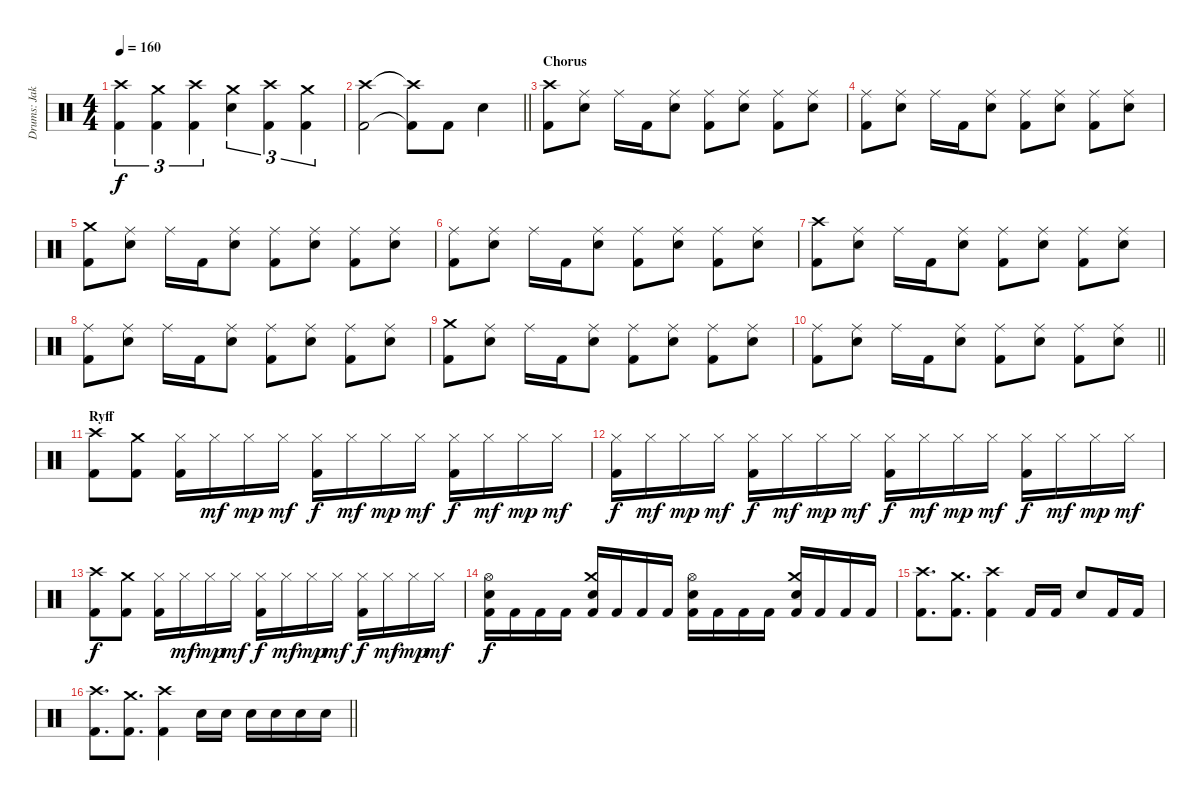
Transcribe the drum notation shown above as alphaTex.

\track ("Drums: Jake" "Drums: Jak") {instrument percussion}
\staff {score}
\articulation defaults
\ts (4 4)
\tempo 160
\clef neutral
\ks c
("Crash high (hit)" "Kick (hit) 2").4{tu (3 2) dy f} ("Crash medium (hit)" "Kick (hit) 2").4{tu (3 2)} ("Crash high (hit)" "Kick (hit) 2").4{tu (3 2)} ("Crash medium (hit)" "Snare (hit) 2").4{tu (3 2)} ("Crash high (hit)" "Kick (hit) 2").4{tu (3 2)} ("Crash medium (hit)" "Kick (hit) 2").4{tu (3 2)} |
\barLineRight lightlight
("Crash high (hit)" "Kick (hit) 2").2 ("Crash high (hit)"{t} "Kick (hit) 2"{t}).8 "Kick (hit) 2".8 "Snare (hit) 2".4 |
\section ("" "Chorus")
("Crash high (hit)" "Kick (hit) 2").8 ("Ride (middle)" "Snare (hit) 2").8 "Ride (middle)".16 "Kick (hit) 2".16 ("Ride (middle)" "Snare (hit) 2").8 ("Ride (middle)" "Kick (hit) 2").8 ("Ride (middle)" "Snare (hit) 2").8 ("Ride (middle)" "Kick (hit) 2").8 ("Ride (middle)" "Snare (hit) 2").8 |
("Ride (middle)" "Kick (hit) 2").8 ("Ride (middle)" "Snare (hit) 2").8 "Ride (middle)".16 "Kick (hit) 2".16 ("Ride (middle)" "Snare (hit) 2").8 ("Ride (middle)" "Kick (hit) 2").8 ("Ride (middle)" "Snare (hit) 2").8 ("Ride (middle)" "Kick (hit) 2").8 ("Ride (middle)" "Snare (hit) 2").8 |
("Crash medium (hit)" "Kick (hit) 2").8 ("Ride (middle)" "Snare (hit) 2").8 "Ride (middle)".16 "Kick (hit) 2".16 ("Ride (middle)" "Snare (hit) 2").8 ("Ride (middle)" "Kick (hit) 2").8 ("Ride (middle)" "Snare (hit) 2").8 ("Ride (middle)" "Kick (hit) 2").8 ("Ride (middle)" "Snare (hit) 2").8 |
("Ride (middle)" "Kick (hit) 2").8 ("Ride (middle)" "Snare (hit) 2").8 "Ride (middle)".16 "Kick (hit) 2".16 ("Ride (middle)" "Snare (hit) 2").8 ("Ride (middle)" "Kick (hit) 2").8 ("Ride (middle)" "Snare (hit) 2").8 ("Ride (middle)" "Kick (hit) 2").8 ("Ride (middle)" "Snare (hit) 2").8 |
("Crash high (hit)" "Kick (hit) 2").8 ("Ride (middle)" "Snare (hit) 2").8 "Ride (middle)".16 "Kick (hit) 2".16 ("Ride (middle)" "Snare (hit) 2").8 ("Ride (middle)" "Kick (hit) 2").8 ("Ride (middle)" "Snare (hit) 2").8 ("Ride (middle)" "Kick (hit) 2").8 ("Ride (middle)" "Snare (hit) 2").8 |
("Ride (middle)" "Kick (hit) 2").8 ("Ride (middle)" "Snare (hit) 2").8 "Ride (middle)".16 "Kick (hit) 2".16 ("Ride (middle)" "Snare (hit) 2").8 ("Ride (middle)" "Kick (hit) 2").8 ("Ride (middle)" "Snare (hit) 2").8 ("Ride (middle)" "Kick (hit) 2").8 ("Ride (middle)" "Snare (hit) 2").8 |
("Crash medium (hit)" "Kick (hit) 2").8 ("Ride (middle)" "Snare (hit) 2").8 "Ride (middle)".16 "Kick (hit) 2".16 ("Ride (middle)" "Snare (hit) 2").8 ("Ride (middle)" "Kick (hit) 2").8 ("Ride (middle)" "Snare (hit) 2").8 ("Ride (middle)" "Kick (hit) 2").8 ("Ride (middle)" "Snare (hit) 2").8 |
\barLineRight lightlight
("Ride (middle)" "Kick (hit) 2").8 ("Ride (middle)" "Snare (hit) 2").8 "Ride (middle)".16 "Kick (hit) 2".16 ("Ride (middle)" "Snare (hit) 2").8 ("Ride (middle)" "Kick (hit) 2").8 ("Ride (middle)" "Snare (hit) 2").8 ("Ride (middle)" "Kick (hit) 2").8 ("Ride (middle)" "Snare (hit) 2").8 |
\section ("" "Ryff")
("Crash high (hit)" "Kick (hit) 2").8 ("Crash medium (hit)" "Kick (hit) 2").8 ("Hi-Hat (closed)" "Kick (hit) 2").16 "Hi-Hat (closed)".16{dy mf} "Hi-Hat (closed)".16{dy mp} "Hi-Hat (closed)".16{dy mf} ("Hi-Hat (closed)" "Kick (hit) 2").16{dy f} "Hi-Hat (closed)".16{dy mf} "Hi-Hat (closed)".16{dy mp} "Hi-Hat (closed)".16{dy mf} ("Hi-Hat (closed)" "Kick (hit) 2").16{dy f} "Hi-Hat (closed)".16{dy mf} "Hi-Hat (closed)".16{dy mp} "Hi-Hat (closed)".16{dy mf} |
("Hi-Hat (closed)" "Kick (hit) 2").16{dy f} "Hi-Hat (closed)".16{dy mf} "Hi-Hat (closed)".16{dy mp} "Hi-Hat (closed)".16{dy mf} ("Hi-Hat (closed)" "Kick (hit) 2").16{dy f} "Hi-Hat (closed)".16{dy mf} "Hi-Hat (closed)".16{dy mp} "Hi-Hat (closed)".16{dy mf} ("Hi-Hat (closed)" "Kick (hit) 2").16{dy f} "Hi-Hat (closed)".16{dy mf} "Hi-Hat (closed)".16{dy mp} "Hi-Hat (closed)".16{dy mf} ("Hi-Hat (closed)" "Kick (hit) 2").16{dy f} "Hi-Hat (closed)".16{dy mf} "Hi-Hat (closed)".16{dy mp} "Hi-Hat (closed)".16{dy mf} |
("Crash high (hit)" "Kick (hit) 2").8{dy f} ("Crash medium (hit)" "Kick (hit) 2").8 ("Hi-Hat (closed)" "Kick (hit) 2").16 "Hi-Hat (closed)".16{dy mf} "Hi-Hat (closed)".16{dy mp} "Hi-Hat (closed)".16{dy mf} ("Hi-Hat (closed)" "Kick (hit) 2").16{dy f} "Hi-Hat (closed)".16{dy mf} "Hi-Hat (closed)".16{dy mp} "Hi-Hat (closed)".16{dy mf} ("Hi-Hat (closed)" "Kick (hit) 2").16{dy f} "Hi-Hat (closed)".16{dy mf} "Hi-Hat (closed)".16{dy mp} "Hi-Hat (closed)".16{dy mf} |
("Hi-Hat (open)" "Snare (hit) 2" "Kick (hit) 2").16{dy f} "Kick (hit) 2".16 "Kick (hit) 2".16 "Kick (hit) 2".16 ("Crash medium (hit)" "Snare (hit) 2" "Kick (hit) 2").16 "Kick (hit) 2".16 "Kick (hit) 2".16 "Kick (hit) 2".16 ("Hi-Hat (open)" "Snare (hit) 2" "Kick (hit) 2").16 "Kick (hit) 2".16 "Kick (hit) 2".16 "Kick (hit) 2".16 ("Crash medium (hit)" "Snare (hit) 2" "Kick (hit) 2").16 "Kick (hit) 2".16 "Kick (hit) 2".16 "Kick (hit) 2".16 |
("Crash high (hit)" "Kick (hit) 2").8{d} ("Crash medium (hit)" "Kick (hit) 2").8{d} ("Crash high (hit)" "Kick (hit) 2").4 "Kick (hit) 2".16 "Kick (hit) 2".16 "Snare (hit) 2".8 "Kick (hit) 2".16 "Kick (hit) 2".16 |
\barLineRight lightlight
("Crash high (hit)" "Kick (hit) 2").8{d} ("Crash medium (hit)" "Kick (hit) 2").8{d} ("Crash high (hit)" "Kick (hit) 2").4 "Snare (hit) 2".16 "Snare (hit) 2".16 "Snare (hit) 2".16 "Snare (hit) 2".16 "Snare (hit) 2".16 "Snare (hit) 2".16
